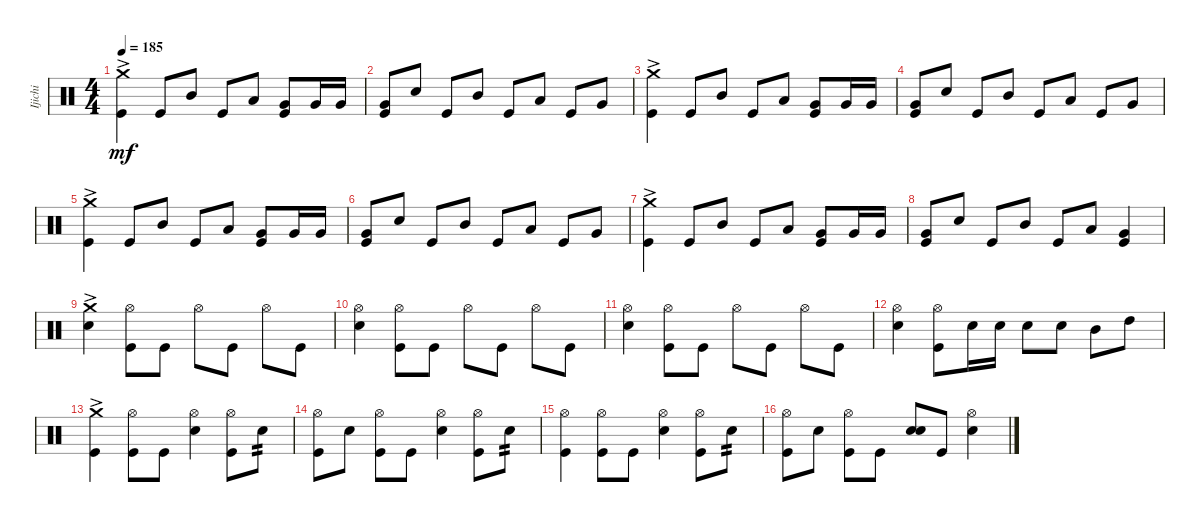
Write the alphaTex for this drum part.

\track ("Ijichi" "Ijichi") {instrument percussion}
\staff {score}
\articulation defaults
\ts (4 4)
\tempo 185
\clef neutral
\ks c
("Crash medium (hit)"{ac} "Kick (hit)").4{dy mf} "Kick (hit)".8 "Mid Tom (hit)".8 "Kick (hit)".8 "Low Tom (hit)".8 ("Very Low Tom (hit)" "Kick (hit)").8 "Very Low Tom (hit)".16 "Very Low Tom (hit)".16 |
("Very Low Tom (hit)" "Kick (hit)").8 "Snare (hit) 2".8 "Kick (hit)".8 "Mid Tom (hit)".8 "Kick (hit)".8 "Low Tom (hit)".8 "Kick (hit)".8 "Very Low Tom (hit)".8 |
("Crash medium (hit)"{ac} "Kick (hit)").4 "Kick (hit)".8 "Mid Tom (hit)".8 "Kick (hit)".8 "Low Tom (hit)".8 ("Very Low Tom (hit)" "Kick (hit)").8 "Very Low Tom (hit)".16 "Very Low Tom (hit)".16 |
("Very Low Tom (hit)" "Kick (hit)").8 "Snare (hit) 2".8 "Kick (hit)".8 "Mid Tom (hit)".8 "Kick (hit)".8 "Low Tom (hit)".8 "Kick (hit)".8 "Very Low Tom (hit)".8 |
("Crash medium (hit)"{ac} "Kick (hit)").4 "Kick (hit)".8 "Mid Tom (hit)".8 "Kick (hit)".8 "Low Tom (hit)".8 ("Very Low Tom (hit)" "Kick (hit)").8 "Very Low Tom (hit)".16 "Very Low Tom (hit)".16 |
("Very Low Tom (hit)" "Kick (hit)").8 "Snare (hit) 2".8 "Kick (hit)".8 "Mid Tom (hit)".8 "Kick (hit)".8 "Low Tom (hit)".8 "Kick (hit)".8 "Very Low Tom (hit)".8 |
("Crash medium (hit)"{ac} "Kick (hit)").4 "Kick (hit)".8 "Mid Tom (hit)".8 "Kick (hit)".8 "Low Tom (hit)".8 ("Very Low Tom (hit)" "Kick (hit)").8 "Very Low Tom (hit)".16 "Very Low Tom (hit)".16 |
("Very Low Tom (hit)" "Kick (hit)").8 "Snare (hit) 2".8 "Kick (hit)".8 "Mid Tom (hit)".8 "Kick (hit)".8 "Low Tom (hit)".8 ("Very Low Tom (hit)" "Kick (hit)").4 |
("Crash medium (hit)"{ac} "Snare (hit) 2").4 ("Hi-Hat (open)" "Kick (hit)").8 "Kick (hit)".8 "Hi-Hat (open)".8 "Kick (hit)".8 "Hi-Hat (open)".8 "Kick (hit)".8 |
("Hi-Hat (open)" "Snare (hit) 2").4 ("Hi-Hat (open)" "Kick (hit)").8 "Kick (hit)".8 "Hi-Hat (open)".8 "Kick (hit)".8 "Hi-Hat (open)".8 "Kick (hit)".8 |
("Hi-Hat (open)" "Snare (hit) 2").4 ("Hi-Hat (open)" "Kick (hit)").8 "Kick (hit)".8 "Hi-Hat (open)".8 "Kick (hit)".8 "Hi-Hat (open)".8 "Kick (hit)".8 |
("Hi-Hat (open)" "Snare (hit) 2").4 ("Hi-Hat (open)" "Kick (hit)").8 "Snare (hit) 2".16 "Snare (hit) 2".16 "Snare (hit) 2".8 "Snare (hit) 2".8 "Mid Tom (hit)".8 "High Tom (hit)".8 |
("Crash medium (hit)"{ac} "Kick (hit)").4 ("Hi-Hat (open)" "Kick (hit)").8 "Kick (hit)".8 ("Hi-Hat (open)" "Snare (hit) 2").4 ("Hi-Hat (open)" "Kick (hit)").8 "Snare (hit) 2".8{tp 2} |
("Hi-Hat (open)" "Kick (hit)").8 "Snare (hit) 2".8 ("Hi-Hat (open)" "Kick (hit)").8 "Kick (hit)".8 ("Hi-Hat (open)" "Snare (hit) 2").4 ("Hi-Hat (open)" "Kick (hit)").8 "Snare (hit) 2".8{tp 2} |
("Hi-Hat (open)" "Kick (hit)").4 ("Hi-Hat (open)" "Kick (hit)").8 "Kick (hit)".8 ("Hi-Hat (open)" "Snare (hit) 2").4 ("Hi-Hat (open)" "Kick (hit)").8 "Snare (hit) 2".8{tp 2} |
("Hi-Hat (open)" "Kick (hit)").8 "Snare (hit) 2".8 ("Hi-Hat (open)" "Kick (hit)").8 "Kick (hit)".8 ("Snare (hit) 2" "Snare (hit) 2").8 "Kick (hit)".8 ("Hi-Hat (open)" "Snare (hit) 2").4
